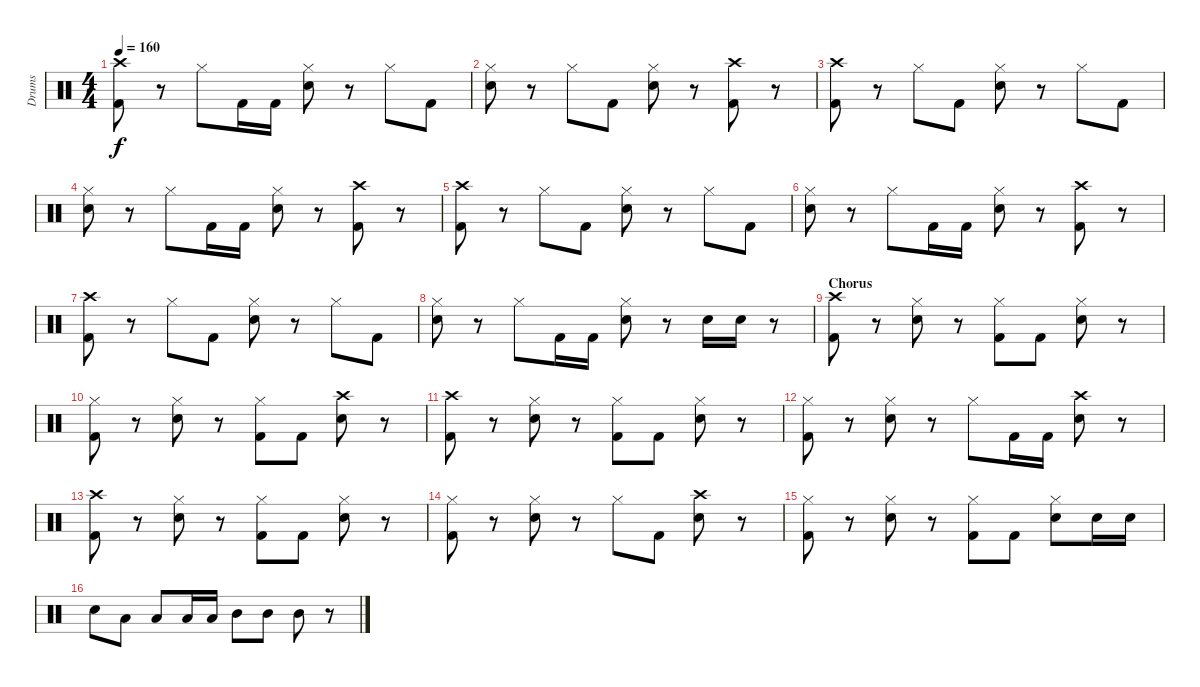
\track ("Drums" "Drums") {instrument percussion}
\staff {score}
\articulation defaults
\ts (4 4)
\tempo 160
\clef neutral
\ks c
("Kick (hit) 2" "Crash high (hit)").8{dy f} r.8 "Hi-Hat (closed)".8 "Kick (hit) 2".16 "Kick (hit) 2".16 ("Hi-Hat (closed)" "Snare (hit) 2").8 r.8 "Hi-Hat (closed)".8 "Kick (hit) 2".8 |
("Hi-Hat (closed)" "Snare (hit) 2").8 r.8 "Hi-Hat (closed)".8 "Kick (hit) 2".8 ("Snare (hit) 2" "Hi-Hat (closed)").8 r.8 ("Crash high (hit)" "Kick (hit) 2").8 r.8 |
("Kick (hit) 2" "Crash high (hit)").8 r.8 "Hi-Hat (closed)".8 "Kick (hit) 2".8 ("Snare (hit) 2" "Hi-Hat (closed)").8 r.8 "Hi-Hat (closed)".8 "Kick (hit) 2".8 |
("Hi-Hat (closed)" "Snare (hit) 2").8 r.8 "Hi-Hat (closed)".8 "Kick (hit) 2".16 "Kick (hit) 2".16 ("Snare (hit) 2" "Hi-Hat (closed)").8 r.8 ("Crash high (hit)" "Kick (hit) 2").8 r.8 |
("Kick (hit) 2" "Crash high (hit)").8 r.8 "Hi-Hat (closed)".8 "Kick (hit) 2".8 ("Snare (hit) 2" "Hi-Hat (closed)").8 r.8 "Hi-Hat (closed)".8 "Kick (hit) 2".8 |
("Hi-Hat (closed)" "Snare (hit) 2").8 r.8 "Hi-Hat (closed)".8 "Kick (hit) 2".16 "Kick (hit) 2".16 ("Snare (hit) 2" "Hi-Hat (closed)").8 r.8 ("Crash high (hit)" "Kick (hit) 2").8 r.8 |
("Kick (hit) 2" "Crash high (hit)").8 r.8 "Hi-Hat (closed)".8 "Kick (hit) 2".8 ("Snare (hit) 2" "Hi-Hat (closed)").8 r.8 "Hi-Hat (closed)".8 "Kick (hit) 2".8 |
("Hi-Hat (closed)" "Snare (hit) 2").8 r.8 "Hi-Hat (closed)".8 "Kick (hit) 2".16 "Kick (hit) 2".16 ("Snare (hit) 2" "Hi-Hat (closed)").8 r.8 "Snare (hit) 2".16 "Snare (hit) 2".16 r.8 |
\section ("" "Chorus")
("Kick (hit) 2" "Crash high (hit)").8 r.8 ("Hi-Hat (closed)" "Snare (hit) 2").8 r.8 ("Hi-Hat (closed)" "Kick (hit) 2").8 "Kick (hit) 2".8 ("Snare (hit) 2" "Hi-Hat (closed)").8 r.8 |
("Kick (hit) 2" "Hi-Hat (closed)").8 r.8 ("Snare (hit) 2" "Hi-Hat (closed)").8 r.8 ("Kick (hit) 2" "Hi-Hat (closed)").8 "Kick (hit) 2".8 ("Crash high (hit)" "Snare (hit) 2").8 r.8 |
("Kick (hit) 2" "Crash high (hit)").8 r.8 ("Hi-Hat (closed)" "Snare (hit) 2").8 r.8 ("Kick (hit) 2" "Hi-Hat (closed)").8 "Kick (hit) 2".8 ("Hi-Hat (closed)" "Snare (hit) 2").8 r.8 |
("Kick (hit) 2" "Hi-Hat (closed)").8 r.8 ("Snare (hit) 2" "Hi-Hat (closed)").8 r.8 "Hi-Hat (closed)".8 "Kick (hit) 2".16 "Kick (hit) 2".16 ("Crash high (hit)" "Snare (hit) 2").8 r.8 |
("Kick (hit) 2" "Crash high (hit)").8 r.8 ("Hi-Hat (closed)" "Snare (hit) 2").8 r.8 ("Hi-Hat (closed)" "Kick (hit) 2").8 "Kick (hit) 2".8 ("Snare (hit) 2" "Hi-Hat (closed)").8 r.8 |
("Kick (hit) 2" "Hi-Hat (closed)").8 r.8 ("Snare (hit) 2" "Hi-Hat (closed)").8 r.8 "Hi-Hat (closed)".8 "Kick (hit) 2".8 ("Crash high (hit)" "Snare (hit) 2").8 r.8 |
("Kick (hit) 2" "Hi-Hat (closed)").8 r.8 ("Snare (hit) 2" "Hi-Hat (closed)").8 r.8 ("Kick (hit) 2" "Hi-Hat (closed)").8 "Kick (hit) 2".8 ("Snare (hit) 2" "Hi-Hat (closed)").8 "Snare (hit) 2".16 "Snare (hit) 2".16 |
"Snare (hit) 2".8 "Low Tom (hit)".8 "Low Tom (hit)".8 "Low Tom (hit)".16 "Low Tom (hit)".16 "Mid Tom (hit)".8 "Mid Tom (hit)".8 "Mid Tom (hit)".8 r.8
